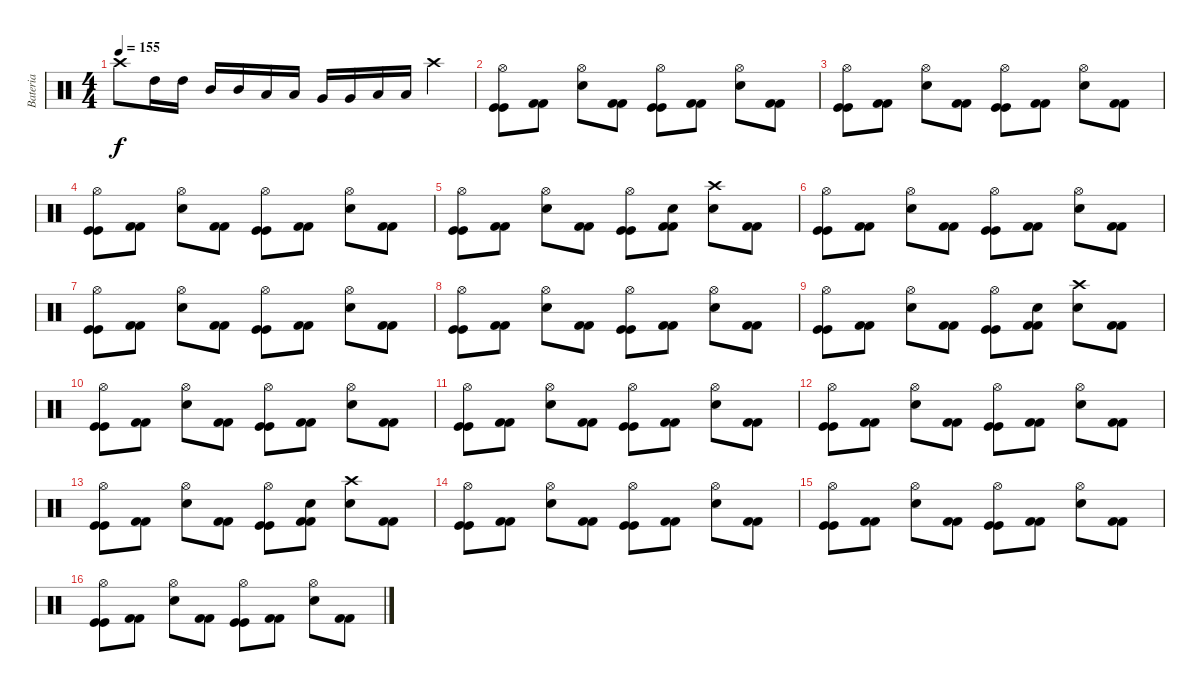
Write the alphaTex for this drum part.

\track ("Bateria" "Bateria") {instrument percussion}
\staff {score}
\articulation defaults
\ts (4 4)
\tempo 155
\clef neutral
\ks c "Crash high (hit)".8{dy f} "High Tom (hit)".16 "High Tom (hit)".16 "Mid Tom (hit)".16 "Mid Tom (hit)".16 "Low Tom (hit)".16 "Low Tom (hit)".16 "Very Low Tom (hit)".16 "Very Low Tom (hit)".16 "Low Floor Tom (hit)".16 "Low Floor Tom (hit)".16 "Crash high (hit)".4
|
("Kick (hit)" "Kick (hit)" "Hi-Hat (open)").8 ("Kick (hit) 2" "Kick (hit) 2").8 ("Snare (hit) 2" "Hi-Hat (open)").8 ("Kick (hit) 2" "Kick (hit) 2").8 ("Kick (hit)" "Kick (hit)" "Hi-Hat (open)").8 ("Kick (hit) 2" "Kick (hit) 2").8 ("Snare (hit) 2" "Hi-Hat (open)").8 ("Kick (hit) 2" "Kick (hit) 2").8 |
("Kick (hit)" "Kick (hit)" "Hi-Hat (open)").8 ("Kick (hit) 2" "Kick (hit) 2").8 ("Snare (hit) 2" "Hi-Hat (open)").8 ("Kick (hit) 2" "Kick (hit) 2").8 ("Kick (hit)" "Kick (hit)" "Hi-Hat (open)").8 ("Kick (hit) 2" "Kick (hit) 2").8 ("Snare (hit) 2" "Hi-Hat (open)").8 ("Kick (hit) 2" "Kick (hit) 2").8 |
("Kick (hit)" "Kick (hit)" "Hi-Hat (open)").8 ("Kick (hit) 2" "Kick (hit) 2").8 ("Snare (hit) 2" "Hi-Hat (open)").8 ("Kick (hit) 2" "Kick (hit) 2").8 ("Kick (hit)" "Kick (hit)" "Hi-Hat (open)").8 ("Kick (hit) 2" "Kick (hit) 2").8 ("Snare (hit) 2" "Hi-Hat (open)").8 ("Kick (hit) 2" "Kick (hit) 2").8 |
("Kick (hit)" "Kick (hit)" "Hi-Hat (open)").8 ("Kick (hit) 2" "Kick (hit) 2").8 ("Snare (hit) 2" "Hi-Hat (open)").8 ("Kick (hit) 2" "Kick (hit) 2").8 ("Kick (hit)" "Kick (hit)" "Hi-Hat (open)").8 ("Kick (hit) 2" "Kick (hit) 2" "Snare (hit) 2").8 ("Snare (hit) 2" "Crash high (hit)").8 ("Kick (hit) 2" "Kick (hit) 2").8 |
("Kick (hit)" "Kick (hit)" "Hi-Hat (open)").8 ("Kick (hit) 2" "Kick (hit) 2").8 ("Snare (hit) 2" "Hi-Hat (open)").8 ("Kick (hit) 2" "Kick (hit) 2").8 ("Kick (hit)" "Kick (hit)" "Hi-Hat (open)").8 ("Kick (hit) 2" "Kick (hit) 2").8 ("Snare (hit) 2" "Hi-Hat (open)").8 ("Kick (hit) 2" "Kick (hit) 2").8 |
("Kick (hit)" "Kick (hit)" "Hi-Hat (open)").8 ("Kick (hit) 2" "Kick (hit) 2").8 ("Snare (hit) 2" "Hi-Hat (open)").8 ("Kick (hit) 2" "Kick (hit) 2").8 ("Kick (hit)" "Kick (hit)" "Hi-Hat (open)").8 ("Kick (hit) 2" "Kick (hit) 2").8 ("Snare (hit) 2" "Hi-Hat (open)").8 ("Kick (hit) 2" "Kick (hit) 2").8 |
("Kick (hit)" "Kick (hit)" "Hi-Hat (open)").8 ("Kick (hit) 2" "Kick (hit) 2").8 ("Snare (hit) 2" "Hi-Hat (open)").8 ("Kick (hit) 2" "Kick (hit) 2").8 ("Kick (hit)" "Kick (hit)" "Hi-Hat (open)").8 ("Kick (hit) 2" "Kick (hit) 2").8 ("Snare (hit) 2" "Hi-Hat (open)").8 ("Kick (hit) 2" "Kick (hit) 2").8 |
("Kick (hit)" "Kick (hit)" "Hi-Hat (open)").8 ("Kick (hit) 2" "Kick (hit) 2").8 ("Snare (hit) 2" "Hi-Hat (open)").8 ("Kick (hit) 2" "Kick (hit) 2").8 ("Kick (hit)" "Kick (hit)" "Hi-Hat (open)").8 ("Kick (hit) 2" "Kick (hit) 2" "Snare (hit) 2").8 ("Snare (hit) 2" "Crash high (hit)").8 ("Kick (hit) 2" "Kick (hit) 2").8 |
("Kick (hit)" "Kick (hit)" "Hi-Hat (open)").8 ("Kick (hit) 2" "Kick (hit) 2").8 ("Snare (hit) 2" "Hi-Hat (open)").8 ("Kick (hit) 2" "Kick (hit) 2").8 ("Kick (hit)" "Kick (hit)" "Hi-Hat (open)").8 ("Kick (hit) 2" "Kick (hit) 2").8 ("Snare (hit) 2" "Hi-Hat (open)").8 ("Kick (hit) 2" "Kick (hit) 2").8 |
("Kick (hit)" "Kick (hit)" "Hi-Hat (open)").8 ("Kick (hit) 2" "Kick (hit) 2").8 ("Snare (hit) 2" "Hi-Hat (open)").8 ("Kick (hit) 2" "Kick (hit) 2").8 ("Kick (hit)" "Kick (hit)" "Hi-Hat (open)").8 ("Kick (hit) 2" "Kick (hit) 2").8 ("Snare (hit) 2" "Hi-Hat (open)").8 ("Kick (hit) 2" "Kick (hit) 2").8 |
("Kick (hit)" "Kick (hit)" "Hi-Hat (open)").8 ("Kick (hit) 2" "Kick (hit) 2").8 ("Snare (hit) 2" "Hi-Hat (open)").8 ("Kick (hit) 2" "Kick (hit) 2").8 ("Kick (hit)" "Kick (hit)" "Hi-Hat (open)").8 ("Kick (hit) 2" "Kick (hit) 2").8 ("Snare (hit) 2" "Hi-Hat (open)").8 ("Kick (hit) 2" "Kick (hit) 2").8 |
("Kick (hit)" "Kick (hit)" "Hi-Hat (open)").8 ("Kick (hit) 2" "Kick (hit) 2").8 ("Snare (hit) 2" "Hi-Hat (open)").8 ("Kick (hit) 2" "Kick (hit) 2").8 ("Kick (hit)" "Kick (hit)" "Hi-Hat (open)").8 ("Kick (hit) 2" "Kick (hit) 2" "Snare (hit) 2").8 ("Snare (hit) 2" "Crash high (hit)").8 ("Kick (hit) 2" "Kick (hit) 2").8 |
("Kick (hit)" "Kick (hit)" "Hi-Hat (open)").8 ("Kick (hit) 2" "Kick (hit) 2").8 ("Snare (hit) 2" "Hi-Hat (open)").8 ("Kick (hit) 2" "Kick (hit) 2").8 ("Kick (hit)" "Kick (hit)" "Hi-Hat (open)").8 ("Kick (hit) 2" "Kick (hit) 2").8 ("Snare (hit) 2" "Hi-Hat (open)").8 ("Kick (hit) 2" "Kick (hit) 2").8 |
("Kick (hit)" "Kick (hit)" "Hi-Hat (open)").8 ("Kick (hit) 2" "Kick (hit) 2").8 ("Snare (hit) 2" "Hi-Hat (open)").8 ("Kick (hit) 2" "Kick (hit) 2").8 ("Kick (hit)" "Kick (hit)" "Hi-Hat (open)").8 ("Kick (hit) 2" "Kick (hit) 2").8 ("Snare (hit) 2" "Hi-Hat (open)").8 ("Kick (hit) 2" "Kick (hit) 2").8 |
("Kick (hit)" "Kick (hit)" "Hi-Hat (open)").8 ("Kick (hit) 2" "Kick (hit) 2").8 ("Snare (hit) 2" "Hi-Hat (open)").8 ("Kick (hit) 2" "Kick (hit) 2").8 ("Kick (hit)" "Kick (hit)" "Hi-Hat (open)").8 ("Kick (hit) 2" "Kick (hit) 2").8 ("Snare (hit) 2" "Hi-Hat (open)").8 ("Kick (hit) 2" "Kick (hit) 2").8
